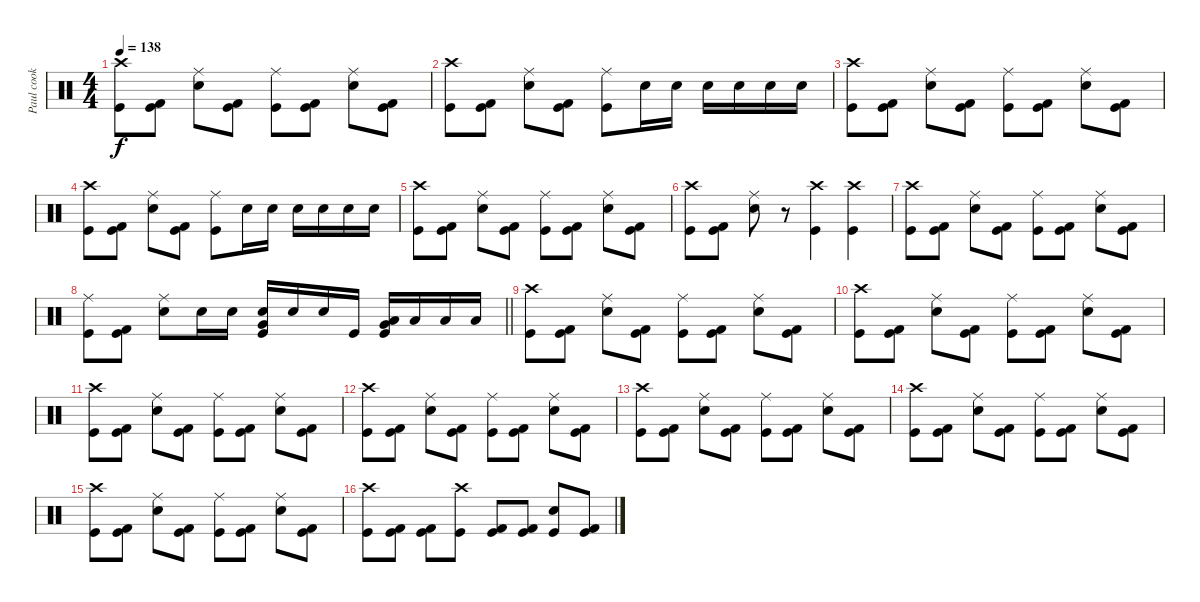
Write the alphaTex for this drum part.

\track ("Paul cook" "Paul cook") {instrument percussion}
\staff {score}
\articulation defaults
\ts (4 4)
\tempo 138
\clef neutral
\ks c
("Crash high (hit)" "Kick (hit)").8{dy f} ("Kick (hit) 2" "Kick (hit)").8 ("Ride (middle)" "Snare (hit) 2").8 ("Kick (hit) 2" "Kick (hit)").8 ("Ride (middle)" "Kick (hit)").8 ("Kick (hit) 2" "Kick (hit)").8 ("Ride (middle)" "Snare (hit) 2").8 ("Kick (hit) 2" "Kick (hit)").8 |
("Crash high (hit)" "Kick (hit)").8 ("Kick (hit) 2" "Kick (hit)").8 ("Ride (middle)" "Snare (hit) 2").8 ("Kick (hit) 2" "Kick (hit)").8 ("Ride (middle)" "Kick (hit)").8 "Snare (hit) 2".16 "Snare (hit) 2".16 "Snare (hit) 2".16 "Snare (hit) 2".16 "Snare (hit) 2".16 "Snare (hit) 2".16 |
("Crash high (hit)" "Kick (hit)").8 ("Kick (hit) 2" "Kick (hit)").8 ("Ride (middle)" "Snare (hit) 2").8 ("Kick (hit) 2" "Kick (hit)").8 ("Ride (middle)" "Kick (hit)").8 ("Kick (hit) 2" "Kick (hit)").8 ("Ride (middle)" "Snare (hit) 2").8 ("Kick (hit) 2" "Kick (hit)").8 |
("Crash high (hit)" "Kick (hit)").8 ("Kick (hit) 2" "Kick (hit)").8 ("Ride (middle)" "Snare (hit) 2").8 ("Kick (hit) 2" "Kick (hit)").8 ("Ride (middle)" "Kick (hit)").8 "Snare (hit) 2".16 "Snare (hit) 2".16 "Snare (hit) 2".16 "Snare (hit) 2".16 "Snare (hit) 2".16 "Snare (hit) 2".16 |
("Crash high (hit)" "Kick (hit)").8 ("Kick (hit) 2" "Kick (hit)").8 ("Ride (middle)" "Snare (hit) 2").8 ("Kick (hit) 2" "Kick (hit)").8 ("Ride (middle)" "Kick (hit)").8 ("Kick (hit) 2" "Kick (hit)").8 ("Ride (middle)" "Snare (hit) 2").8 ("Kick (hit) 2" "Kick (hit)").8 |
("Crash high (hit)" "Kick (hit)").8 ("Kick (hit) 2" "Kick (hit)").8 ("Ride (middle)" "Snare (hit) 2").8 r.8 ("Crash high (hit)" "Kick (hit)").4 ("Crash high (hit)" "Kick (hit)").4 |
("Crash high (hit)" "Kick (hit)").8 ("Kick (hit) 2" "Kick (hit)").8 ("Ride (middle)" "Snare (hit) 2").8 ("Kick (hit) 2" "Kick (hit)").8 ("Ride (middle)" "Kick (hit)").8 ("Kick (hit) 2" "Kick (hit)").8 ("Ride (middle)" "Snare (hit) 2").8 ("Kick (hit) 2" "Kick (hit)").8 |
\barLineRight lightlight
("Ride (middle)" "Kick (hit)").8 ("Kick (hit) 2" "Kick (hit)").8 ("Ride (middle)" "Snare (hit) 2").8 "Snare (hit) 2".16 "Snare (hit) 2".16 ("Very Low Tom (hit)" "Snare (hit) 2" "Kick (hit)").16 "Snare (hit) 2".16 "Snare (hit) 2".16 "Kick (hit)".16 ("Very Low Tom (hit)" "Low Tom (hit)" "Kick (hit)").16 "Low Tom (hit)".16 "Low Tom (hit)".16 "Low Tom (hit)".16 |
("Crash high (hit)" "Kick (hit)").8 ("Kick (hit) 2" "Kick (hit)").8 ("Ride (middle)" "Snare (hit) 2").8 ("Kick (hit) 2" "Kick (hit)").8 ("Ride (middle)" "Kick (hit)").8 ("Kick (hit) 2" "Kick (hit)").8 ("Ride (middle)" "Snare (hit) 2").8 ("Kick (hit) 2" "Kick (hit)").8 |
("Crash high (hit)" "Kick (hit)").8 ("Kick (hit) 2" "Kick (hit)").8 ("Ride (middle)" "Snare (hit) 2").8 ("Kick (hit) 2" "Kick (hit)").8 ("Ride (middle)" "Kick (hit)").8 ("Kick (hit) 2" "Kick (hit)").8 ("Ride (middle)" "Snare (hit) 2").8 ("Kick (hit) 2" "Kick (hit)").8 |
("Crash high (hit)" "Kick (hit)").8 ("Kick (hit) 2" "Kick (hit)").8 ("Ride (middle)" "Snare (hit) 2").8 ("Kick (hit) 2" "Kick (hit)").8 ("Ride (middle)" "Kick (hit)").8 ("Kick (hit) 2" "Kick (hit)").8 ("Ride (middle)" "Snare (hit) 2").8 ("Kick (hit) 2" "Kick (hit)").8 |
("Crash high (hit)" "Kick (hit)").8 ("Kick (hit) 2" "Kick (hit)").8 ("Ride (middle)" "Snare (hit) 2").8 ("Kick (hit) 2" "Kick (hit)").8 ("Ride (middle)" "Kick (hit)").8 ("Kick (hit) 2" "Kick (hit)").8 ("Ride (middle)" "Snare (hit) 2").8 ("Kick (hit) 2" "Kick (hit)").8 |
("Crash high (hit)" "Kick (hit)").8 ("Kick (hit) 2" "Kick (hit)").8 ("Ride (middle)" "Snare (hit) 2").8 ("Kick (hit) 2" "Kick (hit)").8 ("Ride (middle)" "Kick (hit)").8 ("Kick (hit) 2" "Kick (hit)").8 ("Ride (middle)" "Snare (hit) 2").8 ("Kick (hit) 2" "Kick (hit)").8 |
("Crash high (hit)" "Kick (hit)").8 ("Kick (hit) 2" "Kick (hit)").8 ("Ride (middle)" "Snare (hit) 2").8 ("Kick (hit) 2" "Kick (hit)").8 ("Ride (middle)" "Kick (hit)").8 ("Kick (hit) 2" "Kick (hit)").8 ("Ride (middle)" "Snare (hit) 2").8 ("Kick (hit) 2" "Kick (hit)").8 |
("Crash high (hit)" "Kick (hit)").8 ("Kick (hit) 2" "Kick (hit)").8 ("Ride (middle)" "Snare (hit) 2").8 ("Kick (hit) 2" "Kick (hit)").8 ("Ride (middle)" "Kick (hit)").8 ("Kick (hit) 2" "Kick (hit)").8 ("Ride (middle)" "Snare (hit) 2").8 ("Kick (hit) 2" "Kick (hit)").8 |
("Crash high (hit)" "Kick (hit)").8 ("Kick (hit) 2" "Kick (hit)").8 ("Kick (hit) 2" "Kick (hit)").8 ("Crash high (hit)" "Kick (hit)").8 ("Kick (hit) 2" "Kick (hit)").8 ("Kick (hit) 2" "Kick (hit)").8 ("Snare (hit) 2" "Kick (hit)").8 ("Kick (hit) 2" "Kick (hit)").8
